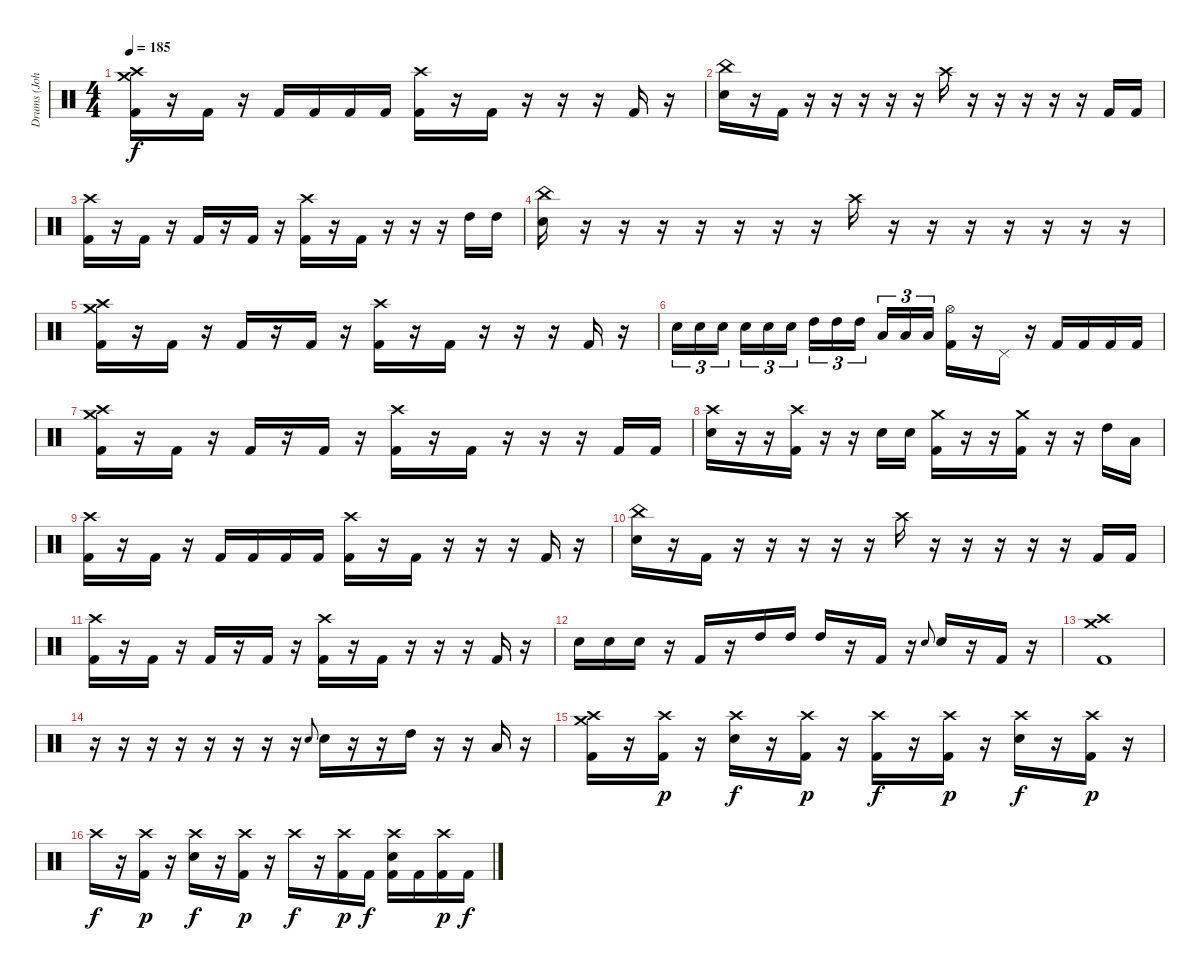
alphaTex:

\track ("Drums (Johno)" "Drums (Joh") {instrument percussion}
\staff {score}
\articulation defaults
\ts (4 4)
\tempo 185
\clef neutral
\ks c
("Crash medium (hit)" "Crash high (hit)" "Kick (hit) 2").16{dy f} r.16 "Kick (hit) 2".16 r.16 "Kick (hit) 2".16 "Kick (hit) 2".16 "Kick (hit) 2".16 "Kick (hit) 2".16 ("Crash high (hit)" "Kick (hit) 2").16 r.16 "Kick (hit) 2".16 r.16 r.16 r.16 "Kick (hit) 2".16 r.16 |
("China (hit)" "Electric Snare (hit)").16 r.16 "Kick (hit) 2".16 r.16 r.16 r.16 r.16 r.16 "Crash high (hit)".16 r.16 r.16 r.16 r.16 r.16 "Kick (hit) 2".16 "Kick (hit) 2".16 |
("Crash high (hit)" "Kick (hit) 2").16 r.16 "Kick (hit) 2".16 r.16 "Kick (hit) 2".16 r.16 "Kick (hit) 2".16 r.16 ("Crash high (hit)" "Kick (hit) 2").16 r.16 "Kick (hit) 2".16 r.16 r.16 r.16 "High Tom (hit)".16 "High Tom (hit)".16 |
("China (hit)" "Electric Snare (hit)").16 r.16 r.16 r.16 r.16 r.16 r.16 r.16 "Crash high (hit)".16 r.16 r.16 r.16 r.16 r.16 r.16 r.16 |
("Crash medium (hit)" "Crash high (hit)" "Kick (hit) 2").16 r.16 "Kick (hit) 2".16 r.16 "Kick (hit) 2".16 r.16 "Kick (hit) 2".16 r.16 ("Crash high (hit)" "Kick (hit) 2").16 r.16 "Kick (hit) 2".16 r.16 r.16 r.16 "Kick (hit) 2".16 r.16 |
"Electric Snare (hit)".16{tu (3 2)} "Electric Snare (hit)".16{tu (3 2)} "Electric Snare (hit)".16{tu (3 2) beam splitsecondary} "Electric Snare (hit)".16{tu (3 2)} "Electric Snare (hit)".16{tu (3 2)} "Electric Snare (hit)".16{tu (3 2)} "High Tom (hit)".16{tu (3 2)} "High Tom (hit)".16{tu (3 2)} "High Tom (hit)".16{tu (3 2) beam splitsecondary} "Low Floor Tom (hit)".16{tu (3 2)} "Low Floor Tom (hit)".16{tu (3 2)} "Low Floor Tom (hit)".16{tu (3 2)} ("Hi-Hat (open)" "Kick (hit) 2").16 r.16 "Pedal Hi-Hat (hit)".16 r.16 "Kick (hit) 2".16 "Kick (hit) 2".16 "Kick (hit) 2".16 "Kick (hit) 2".16 |
("Crash medium (hit)" "Crash high (hit)" "Kick (hit) 2").16 r.16 "Kick (hit) 2".16 r.16 "Kick (hit) 2".16 r.16 "Kick (hit) 2".16 r.16 ("Crash high (hit)" "Kick (hit) 2").16 r.16 "Kick (hit) 2".16 r.16 r.16 r.16 "Kick (hit) 2".16 "Kick (hit) 2".16 |
("Crash high (hit)" "Electric Snare (hit)").16 r.16 r.16 ("Crash high (hit)" "Kick (hit) 2").16 r.16 r.16 "Electric Snare (hit)".16 "Electric Snare (hit)".16 ("Crash medium (hit)" "Kick (hit) 2").16 r.16 r.16 ("Crash medium (hit)" "Kick (hit) 2").16 r.16 r.16 "High Tom (hit)".16 "Low Floor Tom (hit)".16 |
("Crash high (hit)" "Kick (hit) 2").16 r.16 "Kick (hit) 2".16 r.16 "Kick (hit) 2".16 "Kick (hit) 2".16 "Kick (hit) 2".16 "Kick (hit) 2".16 ("Crash high (hit)" "Kick (hit) 2").16 r.16 "Kick (hit) 2".16 r.16 r.16 r.16 "Kick (hit) 2".16 r.16 |
("China (hit)" "Electric Snare (hit)").16 r.16 "Kick (hit) 2".16 r.16 r.16 r.16 r.16 r.16 "Crash high (hit)".16 r.16 r.16 r.16 r.16 r.16 "Kick (hit) 2".16 "Kick (hit) 2".16 |
("Crash high (hit)" "Kick (hit) 2").16 r.16 "Kick (hit) 2".16 r.16 "Kick (hit) 2".16 r.16 "Kick (hit) 2".16 r.16 ("Crash high (hit)" "Kick (hit) 2").16 r.16 "Kick (hit) 2".16 r.16 r.16 r.16 "Kick (hit) 2".16 r.16 |
"Electric Snare (hit)".16 "Electric Snare (hit)".16 "Electric Snare (hit)".16 r.16 "Kick (hit) 2".16 r.16 "High Tom (hit)".16 "High Tom (hit)".16 "High Tom (hit)".16 r.16 "Kick (hit) 2".16 r.16 "Electric Snare (hit)".8{gr onbeat} "Electric Snare (hit)".16 r.16 "Kick (hit) 2".16 r.16 |
("Crash medium (hit)" "Crash high (hit)" "Kick (hit) 2").1 |
r.16 r.16 r.16 r.16 r.16 r.16 r.16 r.16 "Electric Snare (hit)".8{gr onbeat} "Electric Snare (hit)".16 r.16 r.16 "High Tom (hit)".16 r.16 r.16 "Low Floor Tom (hit)".16 r.16 |
("Crash medium (hit)" "Crash high (hit)" "Kick (hit) 2").16 r.16 ("Crash high (hit)" "Kick (hit) 2").16{dy p} r.16 ("Crash high (hit)" "Electric Snare (hit)").16{dy f} r.16 ("Crash high (hit)" "Kick (hit) 2").16{dy p} r.16 ("Crash high (hit)" "Kick (hit) 2").16{dy f} r.16 ("Crash high (hit)" "Kick (hit) 2").16{dy p} r.16 ("Crash high (hit)" "Electric Snare (hit)").16{dy f} r.16 ("Crash high (hit)" "Kick (hit) 2").16{dy p} r.16 |
"Crash high (hit)".16{dy f} r.16 ("Crash high (hit)" "Kick (hit) 2").16{dy p} r.16 ("Crash high (hit)" "Electric Snare (hit)").16{dy f} r.16 ("Crash high (hit)" "Kick (hit) 2").16{dy p} r.16 "Crash high (hit)".16{dy f} r.16 ("Crash high (hit)" "Kick (hit) 2").16{dy p} "Kick (hit) 2".16{dy f} ("Crash high (hit)" "Electric Snare (hit)" "Kick (hit) 2").16 "Kick (hit) 2".16 ("Crash high (hit)" "Kick (hit) 2").16{dy p} "Kick (hit) 2".16{dy f}
